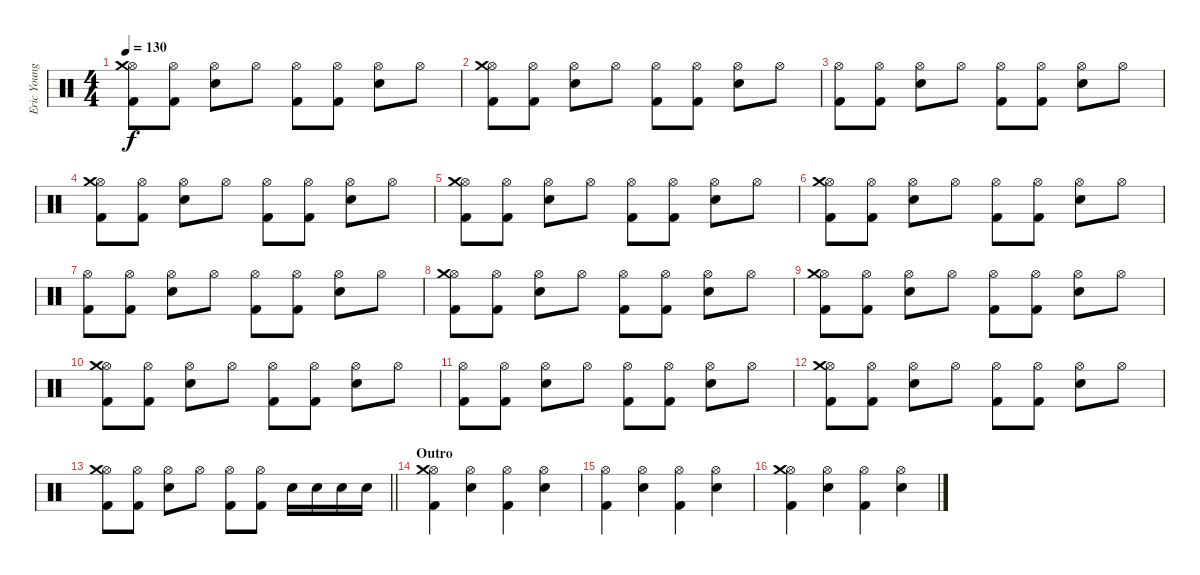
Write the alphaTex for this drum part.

\track ("Eric Young (Drums)" "Eric Young") {instrument percussion}
\staff {score}
\articulation defaults
\ts (4 4)
\tempo 130
\clef neutral
\ks c
("Hi-Hat (open)" "Kick (hit) 2" "Crash medium (hit)").8{dy f} ("Hi-Hat (open)" "Kick (hit) 2").8 ("Hi-Hat (open)" "Snare (hit) 2").8 "Hi-Hat (open)".8 ("Hi-Hat (open)" "Kick (hit) 2").8 ("Hi-Hat (open)" "Kick (hit) 2").8 ("Hi-Hat (open)" "Snare (hit) 2").8 "Hi-Hat (open)".8 |
("Hi-Hat (open)" "Kick (hit) 2" "Crash medium (hit)").8 ("Hi-Hat (open)" "Kick (hit) 2").8 ("Hi-Hat (open)" "Snare (hit) 2").8 "Hi-Hat (open)".8 ("Hi-Hat (open)" "Kick (hit) 2").8 ("Hi-Hat (open)" "Kick (hit) 2").8 ("Hi-Hat (open)" "Snare (hit) 2").8 "Hi-Hat (open)".8 |
("Hi-Hat (open)" "Kick (hit) 2").8 ("Hi-Hat (open)" "Kick (hit) 2").8 ("Hi-Hat (open)" "Snare (hit) 2").8 "Hi-Hat (open)".8 ("Hi-Hat (open)" "Kick (hit) 2").8 ("Hi-Hat (open)" "Kick (hit) 2").8 ("Hi-Hat (open)" "Snare (hit) 2").8 "Hi-Hat (open)".8 |
("Hi-Hat (open)" "Kick (hit) 2" "Crash medium (hit)").8 ("Hi-Hat (open)" "Kick (hit) 2").8 ("Hi-Hat (open)" "Snare (hit) 2").8 "Hi-Hat (open)".8 ("Hi-Hat (open)" "Kick (hit) 2").8 ("Hi-Hat (open)" "Kick (hit) 2").8 ("Hi-Hat (open)" "Snare (hit) 2").8 "Hi-Hat (open)".8 |
("Hi-Hat (open)" "Kick (hit) 2" "Crash medium (hit)").8 ("Hi-Hat (open)" "Kick (hit) 2").8 ("Hi-Hat (open)" "Snare (hit) 2").8 "Hi-Hat (open)".8 ("Hi-Hat (open)" "Kick (hit) 2").8 ("Hi-Hat (open)" "Kick (hit) 2").8 ("Hi-Hat (open)" "Snare (hit) 2").8 "Hi-Hat (open)".8 |
("Hi-Hat (open)" "Kick (hit) 2" "Crash medium (hit)").8 ("Hi-Hat (open)" "Kick (hit) 2").8 ("Hi-Hat (open)" "Snare (hit) 2").8 "Hi-Hat (open)".8 ("Hi-Hat (open)" "Kick (hit) 2").8 ("Hi-Hat (open)" "Kick (hit) 2").8 ("Hi-Hat (open)" "Snare (hit) 2").8 "Hi-Hat (open)".8 |
("Hi-Hat (open)" "Kick (hit) 2").8 ("Hi-Hat (open)" "Kick (hit) 2").8 ("Hi-Hat (open)" "Snare (hit) 2").8 "Hi-Hat (open)".8 ("Hi-Hat (open)" "Kick (hit) 2").8 ("Hi-Hat (open)" "Kick (hit) 2").8 ("Hi-Hat (open)" "Snare (hit) 2").8 "Hi-Hat (open)".8 |
("Hi-Hat (open)" "Kick (hit) 2" "Crash medium (hit)").8 ("Hi-Hat (open)" "Kick (hit) 2").8 ("Hi-Hat (open)" "Snare (hit) 2").8 "Hi-Hat (open)".8 ("Hi-Hat (open)" "Kick (hit) 2").8 ("Hi-Hat (open)" "Kick (hit) 2").8 ("Hi-Hat (open)" "Snare (hit) 2").8 "Hi-Hat (open)".8 |
("Hi-Hat (open)" "Kick (hit) 2" "Crash medium (hit)").8 ("Hi-Hat (open)" "Kick (hit) 2").8 ("Hi-Hat (open)" "Snare (hit) 2").8 "Hi-Hat (open)".8 ("Hi-Hat (open)" "Kick (hit) 2").8 ("Hi-Hat (open)" "Kick (hit) 2").8 ("Hi-Hat (open)" "Snare (hit) 2").8 "Hi-Hat (open)".8 |
("Hi-Hat (open)" "Kick (hit) 2" "Crash medium (hit)").8 ("Hi-Hat (open)" "Kick (hit) 2").8 ("Hi-Hat (open)" "Snare (hit) 2").8 "Hi-Hat (open)".8 ("Hi-Hat (open)" "Kick (hit) 2").8 ("Hi-Hat (open)" "Kick (hit) 2").8 ("Hi-Hat (open)" "Snare (hit) 2").8 "Hi-Hat (open)".8 |
("Hi-Hat (open)" "Kick (hit) 2").8 ("Hi-Hat (open)" "Kick (hit) 2").8 ("Hi-Hat (open)" "Snare (hit) 2").8 "Hi-Hat (open)".8 ("Hi-Hat (open)" "Kick (hit) 2").8 ("Hi-Hat (open)" "Kick (hit) 2").8 ("Hi-Hat (open)" "Snare (hit) 2").8 "Hi-Hat (open)".8 |
("Hi-Hat (open)" "Kick (hit) 2" "Crash medium (hit)").8 ("Hi-Hat (open)" "Kick (hit) 2").8 ("Hi-Hat (open)" "Snare (hit) 2").8 "Hi-Hat (open)".8 ("Hi-Hat (open)" "Kick (hit) 2").8 ("Hi-Hat (open)" "Kick (hit) 2").8 ("Hi-Hat (open)" "Snare (hit) 2").8 "Hi-Hat (open)".8 |
\barLineRight lightlight
("Hi-Hat (open)" "Kick (hit) 2" "Crash medium (hit)").8 ("Hi-Hat (open)" "Kick (hit) 2").8 ("Hi-Hat (open)" "Snare (hit) 2").8 "Hi-Hat (open)".8 ("Hi-Hat (open)" "Kick (hit) 2").8 ("Hi-Hat (open)" "Kick (hit) 2").8 "Snare (hit) 2".16 "Snare (hit) 2".16 "Snare (hit) 2".16 "Snare (hit) 2".16 |
\section ("" "Outro")
("Hi-Hat (open)" "Kick (hit) 2" "Crash medium (hit)").4 ("Hi-Hat (open)" "Snare (hit) 2").4 ("Hi-Hat (open)" "Kick (hit) 2").4 ("Hi-Hat (open)" "Snare (hit) 2").4 |
("Hi-Hat (open)" "Kick (hit) 2").4 ("Hi-Hat (open)" "Snare (hit) 2").4 ("Hi-Hat (open)" "Kick (hit) 2").4 ("Hi-Hat (open)" "Snare (hit) 2").4 |
("Hi-Hat (open)" "Kick (hit) 2" "Crash medium (hit)").4 ("Hi-Hat (open)" "Snare (hit) 2").4 ("Hi-Hat (open)" "Kick (hit) 2").4 ("Hi-Hat (open)" "Snare (hit) 2").4
